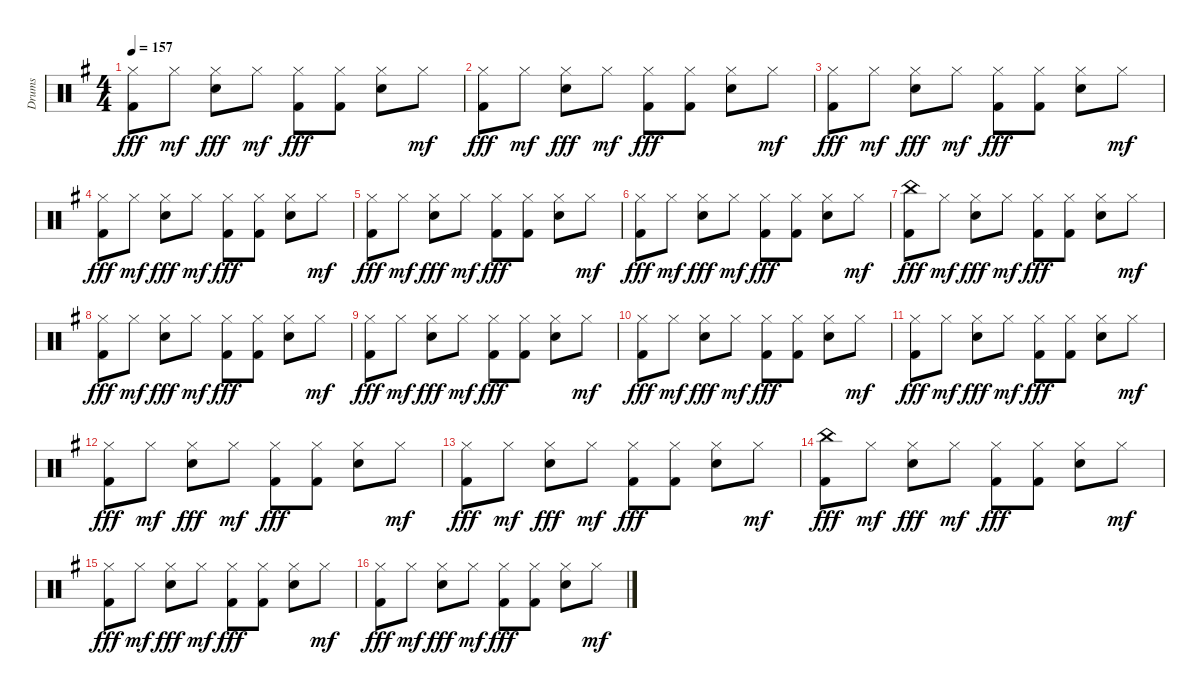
\track ("Drums" "Drums") {instrument percussion}
\staff {score}
\articulation defaults
\ts (4 4)
\tempo 157
\clef neutral
\ks g
("Hi-Hat (closed)" "Kick (hit) 2").8{dy fff} "Hi-Hat (closed)".8{dy mf} ("Electric Snare (hit)" "Hi-Hat (closed)").8{dy fff} "Hi-Hat (closed)".8{dy mf} ("Hi-Hat (closed)" "Kick (hit) 2").8{dy fff} ("Hi-Hat (closed)" "Kick (hit) 2").8 ("Electric Snare (hit)" "Hi-Hat (closed)").8 "Hi-Hat (closed)".8{dy mf} |
("Hi-Hat (closed)" "Kick (hit) 2").8{dy fff} "Hi-Hat (closed)".8{dy mf} ("Electric Snare (hit)" "Hi-Hat (closed)").8{dy fff} "Hi-Hat (closed)".8{dy mf} ("Hi-Hat (closed)" "Kick (hit) 2").8{dy fff} ("Hi-Hat (closed)" "Kick (hit) 2").8 ("Electric Snare (hit)" "Hi-Hat (closed)").8 "Hi-Hat (closed)".8{dy mf} |
("Hi-Hat (closed)" "Kick (hit) 2").8{dy fff} "Hi-Hat (closed)".8{dy mf} ("Electric Snare (hit)" "Hi-Hat (closed)").8{dy fff} "Hi-Hat (closed)".8{dy mf} ("Hi-Hat (closed)" "Kick (hit) 2").8{dy fff} ("Hi-Hat (closed)" "Kick (hit) 2").8 ("Electric Snare (hit)" "Hi-Hat (closed)").8 "Hi-Hat (closed)".8{dy mf} |
("Hi-Hat (closed)" "Kick (hit) 2").8{dy fff} "Hi-Hat (closed)".8{dy mf} ("Electric Snare (hit)" "Hi-Hat (closed)").8{dy fff} "Hi-Hat (closed)".8{dy mf} ("Hi-Hat (closed)" "Kick (hit) 2").8{dy fff} ("Hi-Hat (closed)" "Kick (hit) 2").8 ("Electric Snare (hit)" "Hi-Hat (closed)").8 "Hi-Hat (closed)".8{dy mf} |
("Hi-Hat (closed)" "Kick (hit) 2").8{dy fff} "Hi-Hat (closed)".8{dy mf} ("Electric Snare (hit)" "Hi-Hat (closed)").8{dy fff} "Hi-Hat (closed)".8{dy mf} ("Hi-Hat (closed)" "Kick (hit) 2").8{dy fff} ("Hi-Hat (closed)" "Kick (hit) 2").8 ("Electric Snare (hit)" "Hi-Hat (closed)").8 "Hi-Hat (closed)".8{dy mf} |
("Hi-Hat (closed)" "Kick (hit) 2").8{dy fff} "Hi-Hat (closed)".8{dy mf} ("Electric Snare (hit)" "Hi-Hat (closed)").8{dy fff} "Hi-Hat (closed)".8{dy mf} ("Hi-Hat (closed)" "Kick (hit) 2").8{dy fff} ("Hi-Hat (closed)" "Kick (hit) 2").8 ("Electric Snare (hit)" "Hi-Hat (closed)").8 "Hi-Hat (closed)".8{dy mf} |
("China (hit)" "Kick (hit) 2").8{dy fff} "Hi-Hat (closed)".8{dy mf} ("Electric Snare (hit)" "Hi-Hat (closed)").8{dy fff} "Hi-Hat (closed)".8{dy mf} ("Hi-Hat (closed)" "Kick (hit) 2").8{dy fff} ("Hi-Hat (closed)" "Kick (hit) 2").8 ("Electric Snare (hit)" "Hi-Hat (closed)").8 "Hi-Hat (closed)".8{dy mf} |
("Hi-Hat (closed)" "Kick (hit) 2").8{dy fff} "Hi-Hat (closed)".8{dy mf} ("Electric Snare (hit)" "Hi-Hat (closed)").8{dy fff} "Hi-Hat (closed)".8{dy mf} ("Hi-Hat (closed)" "Kick (hit) 2").8{dy fff} ("Hi-Hat (closed)" "Kick (hit) 2").8 ("Electric Snare (hit)" "Hi-Hat (closed)").8 "Hi-Hat (closed)".8{dy mf} |
("Hi-Hat (closed)" "Kick (hit) 2").8{dy fff} "Hi-Hat (closed)".8{dy mf} ("Electric Snare (hit)" "Hi-Hat (closed)").8{dy fff} "Hi-Hat (closed)".8{dy mf} ("Hi-Hat (closed)" "Kick (hit) 2").8{dy fff} ("Hi-Hat (closed)" "Kick (hit) 2").8 ("Electric Snare (hit)" "Hi-Hat (closed)").8 "Hi-Hat (closed)".8{dy mf} |
("Hi-Hat (closed)" "Kick (hit) 2").8{dy fff} "Hi-Hat (closed)".8{dy mf} ("Electric Snare (hit)" "Hi-Hat (closed)").8{dy fff} "Hi-Hat (closed)".8{dy mf} ("Hi-Hat (closed)" "Kick (hit) 2").8{dy fff} ("Hi-Hat (closed)" "Kick (hit) 2").8 ("Electric Snare (hit)" "Hi-Hat (closed)").8 "Hi-Hat (closed)".8{dy mf} |
("Hi-Hat (closed)" "Kick (hit) 2").8{dy fff} "Hi-Hat (closed)".8{dy mf} ("Electric Snare (hit)" "Hi-Hat (closed)").8{dy fff} "Hi-Hat (closed)".8{dy mf} ("Hi-Hat (closed)" "Kick (hit) 2").8{dy fff} ("Hi-Hat (closed)" "Kick (hit) 2").8 ("Electric Snare (hit)" "Hi-Hat (closed)").8 "Hi-Hat (closed)".8{dy mf} |
("Hi-Hat (closed)" "Kick (hit) 2").8{dy fff} "Hi-Hat (closed)".8{dy mf} ("Electric Snare (hit)" "Hi-Hat (closed)").8{dy fff} "Hi-Hat (closed)".8{dy mf} ("Hi-Hat (closed)" "Kick (hit) 2").8{dy fff} ("Hi-Hat (closed)" "Kick (hit) 2").8 ("Electric Snare (hit)" "Hi-Hat (closed)").8 "Hi-Hat (closed)".8{dy mf} |
("Hi-Hat (closed)" "Kick (hit) 2").8{dy fff} "Hi-Hat (closed)".8{dy mf} ("Electric Snare (hit)" "Hi-Hat (closed)").8{dy fff} "Hi-Hat (closed)".8{dy mf} ("Hi-Hat (closed)" "Kick (hit) 2").8{dy fff} ("Hi-Hat (closed)" "Kick (hit) 2").8 ("Electric Snare (hit)" "Hi-Hat (closed)").8 "Hi-Hat (closed)".8{dy mf} |
("China (hit)" "Kick (hit) 2").8{dy fff} "Hi-Hat (closed)".8{dy mf} ("Electric Snare (hit)" "Hi-Hat (closed)").8{dy fff} "Hi-Hat (closed)".8{dy mf} ("Hi-Hat (closed)" "Kick (hit) 2").8{dy fff} ("Hi-Hat (closed)" "Kick (hit) 2").8 ("Electric Snare (hit)" "Hi-Hat (closed)").8 "Hi-Hat (closed)".8{dy mf} |
("Hi-Hat (closed)" "Kick (hit) 2").8{dy fff} "Hi-Hat (closed)".8{dy mf} ("Electric Snare (hit)" "Hi-Hat (closed)").8{dy fff} "Hi-Hat (closed)".8{dy mf} ("Hi-Hat (closed)" "Kick (hit) 2").8{dy fff} ("Hi-Hat (closed)" "Kick (hit) 2").8 ("Electric Snare (hit)" "Hi-Hat (closed)").8 "Hi-Hat (closed)".8{dy mf} |
("Hi-Hat (closed)" "Kick (hit) 2").8{dy fff} "Hi-Hat (closed)".8{dy mf} ("Electric Snare (hit)" "Hi-Hat (closed)").8{dy fff} "Hi-Hat (closed)".8{dy mf} ("Hi-Hat (closed)" "Kick (hit) 2").8{dy fff} ("Hi-Hat (closed)" "Kick (hit) 2").8 ("Electric Snare (hit)" "Hi-Hat (closed)").8 "Hi-Hat (closed)".8{dy mf}
